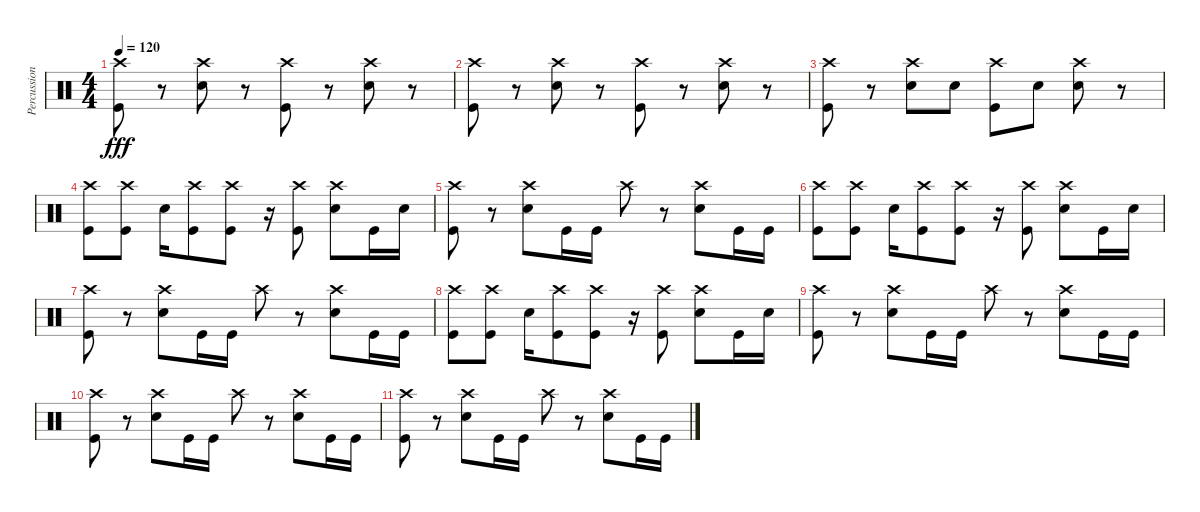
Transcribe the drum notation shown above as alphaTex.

\track ("Percussion" "Percussion") {instrument percussion}
\staff {score}
\articulation defaults
\ts (4 4)
\tempo 120
\clef neutral
\ks c
("Crash high (hit)" "Kick (hit)").8{dy fff} r.8 ("Crash high (hit)" "Snare (hit) 2").8 r.8 ("Crash high (hit)" "Kick (hit)").8 r.8 ("Crash high (hit)" "Snare (hit) 2").8 r.8 |
("Crash high (hit)" "Kick (hit)").8 r.8 ("Crash high (hit)" "Snare (hit) 2").8 r.8 ("Crash high (hit)" "Kick (hit)").8 r.8 ("Crash high (hit)" "Snare (hit) 2").8 r.8 |
("Crash high (hit)" "Kick (hit)").8 r.8 ("Crash high (hit)" "Snare (hit) 2").8 "Snare (hit) 2".8 ("Crash high (hit)" "Kick (hit)").8 "Snare (hit) 2".8 ("Crash high (hit)" "Snare (hit) 2").8 r.8 |
("Crash high (hit)" "Kick (hit)").8 ("Crash high (hit)" "Kick (hit)").8 "Snare (hit) 2".16 ("Crash high (hit)" "Kick (hit)").8 ("Crash high (hit)" "Kick (hit)").8 r.16 ("Crash high (hit)" "Kick (hit)").8 ("Crash high (hit)" "Snare (hit) 2").8 "Kick (hit)".16 "Snare (hit) 2".16 |
("Crash high (hit)" "Kick (hit)").8 r.8 ("Crash high (hit)" "Snare (hit) 2").8 "Kick (hit)".16 "Kick (hit)".16 "Crash high (hit)".8 r.8 ("Crash high (hit)" "Snare (hit) 2").8 "Kick (hit)".16 "Kick (hit)".16 |
("Crash high (hit)" "Kick (hit)").8 ("Crash high (hit)" "Kick (hit)").8 "Snare (hit) 2".16 ("Crash high (hit)" "Kick (hit)").8 ("Crash high (hit)" "Kick (hit)").8 r.16 ("Crash high (hit)" "Kick (hit)").8 ("Crash high (hit)" "Snare (hit) 2").8 "Kick (hit)".16 "Snare (hit) 2".16 |
("Crash high (hit)" "Kick (hit)").8 r.8 ("Crash high (hit)" "Snare (hit) 2").8 "Kick (hit)".16 "Kick (hit)".16 "Crash high (hit)".8 r.8 ("Crash high (hit)" "Snare (hit) 2").8 "Kick (hit)".16 "Kick (hit)".16 |
("Crash high (hit)" "Kick (hit)").8 ("Crash high (hit)" "Kick (hit)").8 "Snare (hit) 2".16 ("Crash high (hit)" "Kick (hit)").8 ("Crash high (hit)" "Kick (hit)").8 r.16 ("Crash high (hit)" "Kick (hit)").8 ("Crash high (hit)" "Snare (hit) 2").8 "Kick (hit)".16 "Snare (hit) 2".16 |
("Crash high (hit)" "Kick (hit)").8 r.8 ("Crash high (hit)" "Snare (hit) 2").8 "Kick (hit)".16 "Kick (hit)".16 "Crash high (hit)".8 r.8 ("Crash high (hit)" "Snare (hit) 2").8 "Kick (hit)".16 "Kick (hit)".16 |
("Crash high (hit)" "Kick (hit)").8 r.8 ("Crash high (hit)" "Snare (hit) 2").8 "Kick (hit)".16 "Kick (hit)".16 "Crash high (hit)".8 r.8 ("Crash high (hit)" "Snare (hit) 2").8 "Kick (hit)".16 "Kick (hit)".16 |
("Crash high (hit)" "Kick (hit)").8 r.8 ("Crash high (hit)" "Snare (hit) 2").8 "Kick (hit)".16 "Kick (hit)".16 "Crash high (hit)".8 r.8 ("Crash high (hit)" "Snare (hit) 2").8 "Kick (hit)".16 "Kick (hit)".16
